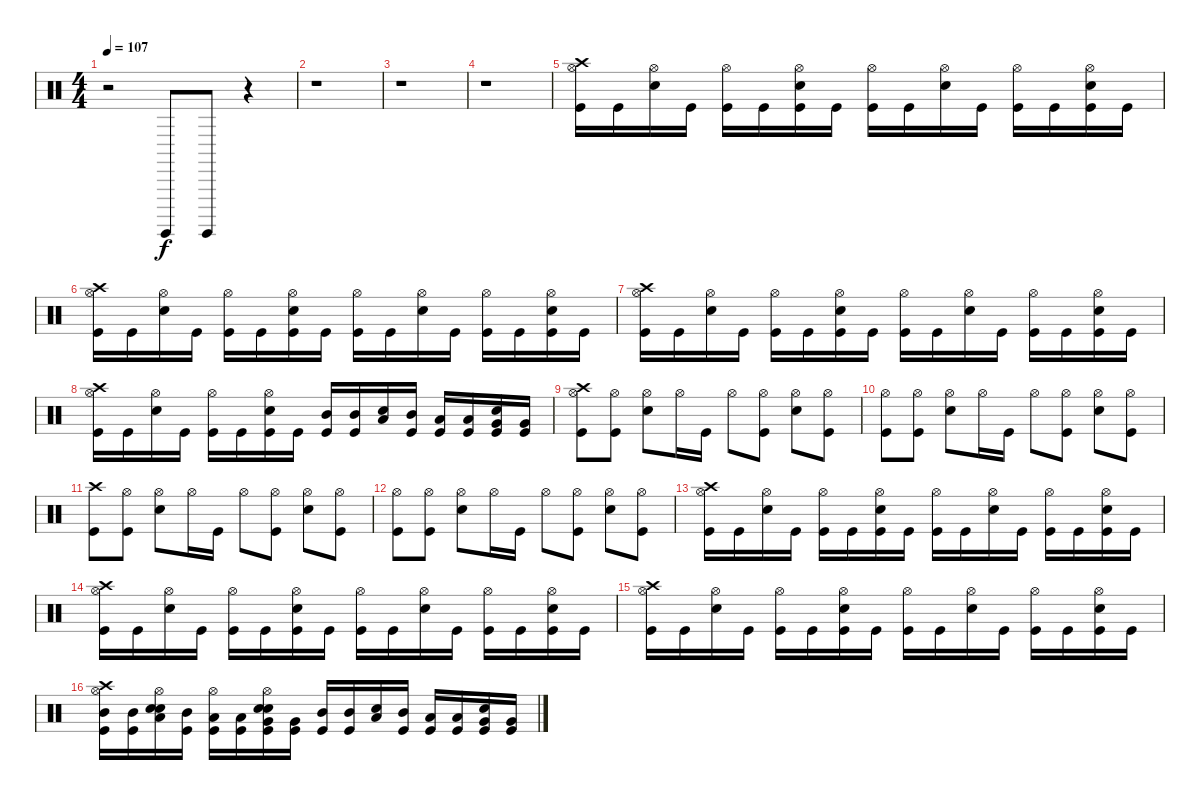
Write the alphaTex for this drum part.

\track "" {instrument percussion}
\staff {score}
\articulation defaults
\ts (4 4)
\tempo 107
\clef neutral
\ks c
r.2{dy f} "Surdo (hit)".8 "Surdo (hit)".8 r.4 |
r.1 |
r.1 |
r.1 |
("Hi-Hat (open)" "Crash high (hit)" "Kick (hit)").16 "Kick (hit)".16 ("Hi-Hat (open)" "Snare (hit) 2").16 "Kick (hit)".16 ("Hi-Hat (open)" "Kick (hit)").16 "Kick (hit)".16 ("Hi-Hat (open)" "Snare (hit) 2" "Kick (hit)").16 "Kick (hit)".16 ("Hi-Hat (open)" "Kick (hit)").16 "Kick (hit)".16 ("Hi-Hat (open)" "Snare (hit) 2").16 "Kick (hit)".16 ("Hi-Hat (open)" "Kick (hit)").16 "Kick (hit)".16 ("Hi-Hat (open)" "Snare (hit) 2" "Kick (hit)").16 "Kick (hit)".16 |
("Hi-Hat (open)" "Crash high (hit)" "Kick (hit)").16 "Kick (hit)".16 ("Hi-Hat (open)" "Snare (hit) 2").16 "Kick (hit)".16 ("Hi-Hat (open)" "Kick (hit)").16 "Kick (hit)".16 ("Hi-Hat (open)" "Snare (hit) 2" "Kick (hit)").16 "Kick (hit)".16 ("Hi-Hat (open)" "Kick (hit)").16 "Kick (hit)".16 ("Hi-Hat (open)" "Snare (hit) 2").16 "Kick (hit)".16 ("Hi-Hat (open)" "Kick (hit)").16 "Kick (hit)".16 ("Hi-Hat (open)" "Snare (hit) 2" "Kick (hit)").16 "Kick (hit)".16 |
("Hi-Hat (open)" "Crash high (hit)" "Kick (hit)").16 "Kick (hit)".16 ("Hi-Hat (open)" "Snare (hit) 2").16 "Kick (hit)".16 ("Hi-Hat (open)" "Kick (hit)").16 "Kick (hit)".16 ("Hi-Hat (open)" "Snare (hit) 2" "Kick (hit)").16 "Kick (hit)".16 ("Hi-Hat (open)" "Kick (hit)").16 "Kick (hit)".16 ("Hi-Hat (open)" "Snare (hit) 2").16 "Kick (hit)".16 ("Hi-Hat (open)" "Kick (hit)").16 "Kick (hit)".16 ("Hi-Hat (open)" "Snare (hit) 2" "Kick (hit)").16 "Kick (hit)".16 |
("Hi-Hat (open)" "Crash high (hit)" "Kick (hit)").16 "Kick (hit)".16 ("Hi-Hat (open)" "Snare (hit) 2").16 "Kick (hit)".16 ("Hi-Hat (open)" "Kick (hit)").16 "Kick (hit)".16 ("Hi-Hat (open)" "Snare (hit) 2" "Kick (hit)").16 "Kick (hit)".16 ("Mid Tom (hit)" "Kick (hit)").16 ("Mid Tom (hit)" "Kick (hit)").16 ("Low Tom (hit)" "Snare (hit) 2").16 ("Mid Tom (hit)" "Kick (hit)").16 ("Low Tom (hit)" "Kick (hit)").16 ("Low Tom (hit)" "Kick (hit)").16 ("Very Low Tom (hit)" "Snare (hit) 2" "Kick (hit)").16 ("Very Low Tom (hit)" "Kick (hit)").16 |
("Crash high (hit)" "Hi-Hat (open)" "Kick (hit)").8 ("Kick (hit)" "Hi-Hat (open)").8 ("Snare (hit) 2" "Hi-Hat (open)").8 "Hi-Hat (open)".16 "Kick (hit)".16 "Hi-Hat (open)".8 ("Kick (hit)" "Hi-Hat (open)").8 ("Snare (hit) 2" "Hi-Hat (open)").8 ("Kick (hit)" "Hi-Hat (open)").8 |
("Hi-Hat (open)" "Kick (hit)").8 ("Kick (hit)" "Hi-Hat (open)").8 ("Snare (hit) 2" "Hi-Hat (open)").8 "Hi-Hat (open)".16 "Kick (hit)".16 "Hi-Hat (open)".8 ("Kick (hit)" "Hi-Hat (open)").8 ("Snare (hit) 2" "Hi-Hat (open)").8 ("Kick (hit)" "Hi-Hat (open)").8 |
("Crash high (hit)" "Kick (hit)").8 ("Kick (hit)" "Hi-Hat (open)").8 ("Snare (hit) 2" "Hi-Hat (open)").8 "Hi-Hat (open)".16 "Kick (hit)".16 "Hi-Hat (open)".8 ("Kick (hit)" "Hi-Hat (open)").8 ("Snare (hit) 2" "Hi-Hat (open)").8 ("Kick (hit)" "Hi-Hat (open)").8 |
("Hi-Hat (open)" "Kick (hit)").8 ("Kick (hit)" "Hi-Hat (open)").8 ("Snare (hit) 2" "Hi-Hat (open)").8 "Hi-Hat (open)".16 "Kick (hit)".16 "Hi-Hat (open)".8 ("Kick (hit)" "Hi-Hat (open)").8 ("Snare (hit) 2" "Hi-Hat (open)").8 ("Kick (hit)" "Hi-Hat (open)").8 |
("Hi-Hat (open)" "Crash high (hit)" "Kick (hit)").16 "Kick (hit)".16 ("Hi-Hat (open)" "Snare (hit) 2").16 "Kick (hit)".16 ("Hi-Hat (open)" "Kick (hit)").16 "Kick (hit)".16 ("Hi-Hat (open)" "Snare (hit) 2" "Kick (hit)").16 "Kick (hit)".16 ("Hi-Hat (open)" "Kick (hit)").16 "Kick (hit)".16 ("Hi-Hat (open)" "Snare (hit) 2").16 "Kick (hit)".16 ("Hi-Hat (open)" "Kick (hit)").16 "Kick (hit)".16 ("Hi-Hat (open)" "Snare (hit) 2" "Kick (hit)").16 "Kick (hit)".16 |
("Hi-Hat (open)" "Crash high (hit)" "Kick (hit)").16 "Kick (hit)".16 ("Hi-Hat (open)" "Snare (hit) 2").16 "Kick (hit)".16 ("Hi-Hat (open)" "Kick (hit)").16 "Kick (hit)".16 ("Hi-Hat (open)" "Snare (hit) 2" "Kick (hit)").16 "Kick (hit)".16 ("Hi-Hat (open)" "Kick (hit)").16 "Kick (hit)".16 ("Hi-Hat (open)" "Snare (hit) 2").16 "Kick (hit)".16 ("Hi-Hat (open)" "Kick (hit)").16 "Kick (hit)".16 ("Hi-Hat (open)" "Snare (hit) 2" "Kick (hit)").16 "Kick (hit)".16 |
("Hi-Hat (open)" "Crash high (hit)" "Kick (hit)").16 "Kick (hit)".16 ("Hi-Hat (open)" "Snare (hit) 2").16 "Kick (hit)".16 ("Hi-Hat (open)" "Kick (hit)").16 "Kick (hit)".16 ("Hi-Hat (open)" "Snare (hit) 2" "Kick (hit)").16 "Kick (hit)".16 ("Hi-Hat (open)" "Kick (hit)").16 "Kick (hit)".16 ("Hi-Hat (open)" "Snare (hit) 2").16 "Kick (hit)".16 ("Hi-Hat (open)" "Kick (hit)").16 "Kick (hit)".16 ("Hi-Hat (open)" "Snare (hit) 2" "Kick (hit)").16 "Kick (hit)".16 |
("Mid Tom (hit)" "Hi-Hat (open)" "Crash high (hit)" "Kick (hit)").16 ("Mid Tom (hit)" "Kick (hit)").16 ("Low Tom (hit)" "Snare (hit) 2" "Hi-Hat (open)" "Snare (hit) 2").16 ("Mid Tom (hit)" "Kick (hit)").16 ("Low Tom (hit)" "Hi-Hat (open)" "Kick (hit)").16 ("Low Tom (hit)" "Kick (hit)").16 ("Very Low Tom (hit)" "Snare (hit) 2" "Hi-Hat (open)" "Snare (hit) 2" "Kick (hit)").16 ("Very Low Tom (hit)" "Kick (hit)").16 ("Mid Tom (hit)" "Kick (hit)").16 ("Mid Tom (hit)" "Kick (hit)").16 ("Low Tom (hit)" "Snare (hit) 2").16 ("Mid Tom (hit)" "Kick (hit)").16 ("Low Tom (hit)" "Kick (hit)").16 ("Low Tom (hit)" "Kick (hit)").16 ("Very Low Tom (hit)" "Snare (hit) 2" "Kick (hit)").16 ("Very Low Tom (hit)" "Kick (hit)").16
